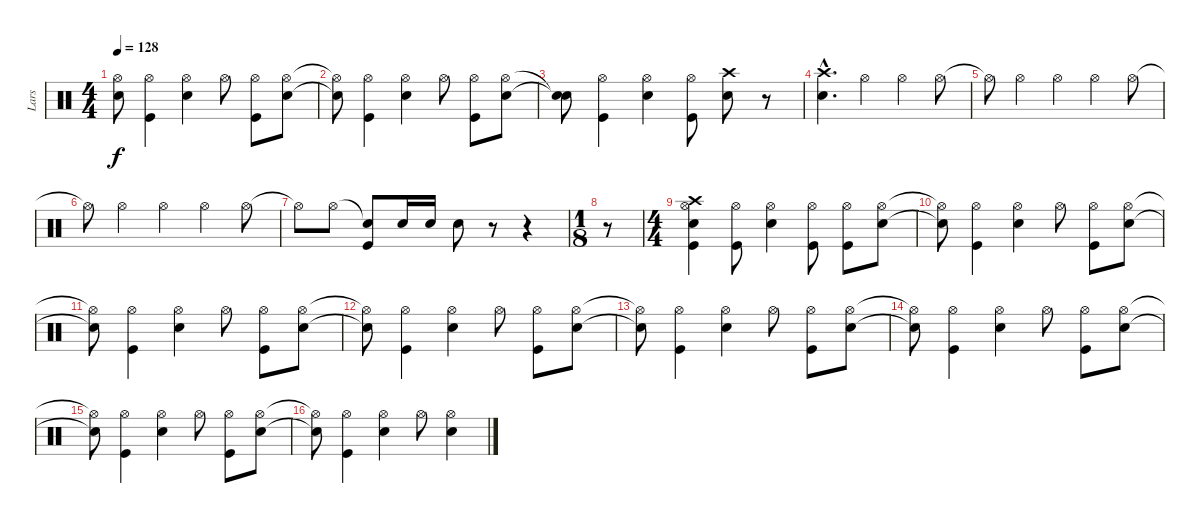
\track ("Lars" "Lars") {instrument percussion}
\staff {score}
\articulation defaults
\ts (4 4)
\tempo 128
\clef neutral
\ks c
("Hi-Hat (open)"{t} "Snare (hit) 2"{t}).8{dy f} ("Hi-Hat (open)" "Kick (hit)").4 ("Hi-Hat (open)" "Snare (hit) 2").4 "Hi-Hat (open)".8 ("Hi-Hat (open)" "Kick (hit)").8 ("Hi-Hat (open)" "Snare (hit) 2").8 |
("Hi-Hat (open)"{t} "Snare (hit) 2"{t}).8 ("Hi-Hat (open)" "Kick (hit)").4 ("Hi-Hat (open)" "Snare (hit) 2").4 "Hi-Hat (open)".8 ("Hi-Hat (open)" "Kick (hit)").8 ("Hi-Hat (open)" "Snare (hit) 2").8 |
("Snare (hit)"{t} "Snare (hit)"{t}).8 ("Hi-Hat (open)" "Kick (hit)").4 ("Hi-Hat (open)" "Snare (hit) 2").4 ("Hi-Hat (open)" "Kick (hit)").8 ("Crash high (hit)" "Snare (hit) 2").8 r.8 |
("Crash high (hit)"{hac} "Snare (hit) 2"{hac}).4{d} "Hi-Hat (open)".4 "Hi-Hat (open)".4 "Hi-Hat (open)".8 |
"Hi-Hat (open)"{t}.8 "Hi-Hat (open)".4 "Hi-Hat (open)".4 "Hi-Hat (open)".4 "Hi-Hat (open)".8 |
"Hi-Hat (open)"{t}.8 "Hi-Hat (open)".4 "Hi-Hat (open)".4 "Hi-Hat (open)".4 "Hi-Hat (open)".8 |
"Hi-Hat (open)"{t}.8 "Hi-Hat (open)".8 ("Snare (hit) 2"{t} "Kick (hit)").8 "Snare (hit) 2".16 "Snare (hit) 2".16 "Snare (hit) 2".8 r.8 r.4 |
\ts (1 8)
r.8 |
\ts (4 4)
("Crash high (hit)" "Hi-Hat (open)" "Snare (hit) 2" "Kick (hit)").4 ("Hi-Hat (open)" "Kick (hit)").8 ("Hi-Hat (open)" "Snare (hit) 2").4 ("Hi-Hat (open)" "Kick (hit)").8 ("Hi-Hat (open)" "Kick (hit)").8 ("Hi-Hat (open)" "Snare (hit) 2").8 |
("Hi-Hat (open)"{t} "Snare (hit) 2"{t}).8 ("Hi-Hat (open)" "Kick (hit)").4 ("Hi-Hat (open)" "Snare (hit) 2").4 "Hi-Hat (open)".8 ("Hi-Hat (open)" "Kick (hit)").8 ("Hi-Hat (open)" "Snare (hit) 2").8 |
("Hi-Hat (open)"{t} "Snare (hit) 2"{t}).8 ("Hi-Hat (open)" "Kick (hit)").4 ("Hi-Hat (open)" "Snare (hit) 2").4 "Hi-Hat (open)".8 ("Hi-Hat (open)" "Kick (hit)").8 ("Hi-Hat (open)" "Snare (hit) 2").8 |
("Hi-Hat (open)"{t} "Snare (hit) 2"{t}).8 ("Hi-Hat (open)" "Kick (hit)").4 ("Hi-Hat (open)" "Snare (hit) 2").4 "Hi-Hat (open)".8 ("Hi-Hat (open)" "Kick (hit)").8 ("Hi-Hat (open)" "Snare (hit) 2").8 |
("Hi-Hat (open)"{t} "Snare (hit) 2"{t}).8 ("Hi-Hat (open)" "Kick (hit)").4 ("Hi-Hat (open)" "Snare (hit) 2").4 "Hi-Hat (open)".8 ("Hi-Hat (open)" "Kick (hit)").8 ("Hi-Hat (open)" "Snare (hit) 2").8 |
("Hi-Hat (open)"{t} "Snare (hit) 2"{t}).8 ("Hi-Hat (open)" "Kick (hit)").4 ("Hi-Hat (open)" "Snare (hit) 2").4 "Hi-Hat (open)".8 ("Hi-Hat (open)" "Kick (hit)").8 ("Hi-Hat (open)" "Snare (hit) 2").8 |
("Hi-Hat (open)"{t} "Snare (hit) 2"{t}).8 ("Hi-Hat (open)" "Kick (hit)").4 ("Hi-Hat (open)" "Snare (hit) 2").4 "Hi-Hat (open)".8 ("Hi-Hat (open)" "Kick (hit)").8 ("Hi-Hat (open)" "Snare (hit) 2").8 |
("Hi-Hat (open)"{t} "Snare (hit) 2"{t}).8 ("Hi-Hat (open)" "Kick (hit)").4 ("Hi-Hat (open)" "Snare (hit) 2").4 "Hi-Hat (open)".8 ("Hi-Hat (open)" "Snare (hit) 2").4
